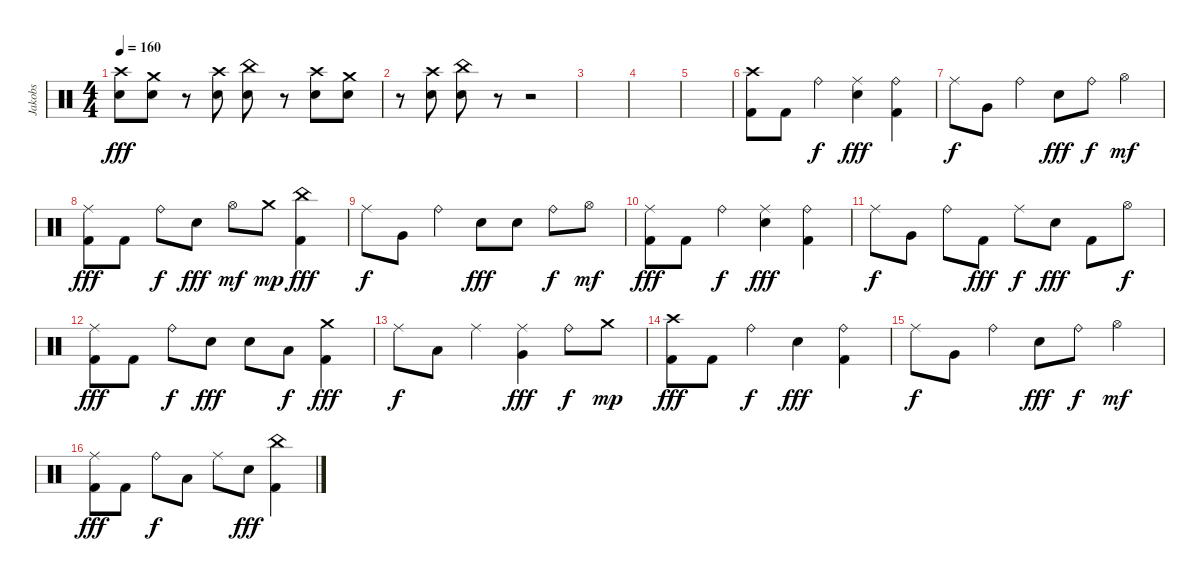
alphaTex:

\track ("Jakobs" "Jakobs") {instrument percussion}
\staff {score}
\articulation defaults
\ts (4 4)
\tempo 160
\clef neutral
\ks c
("Crash high (hit)" "Snare (hit) 2").8{dy fff} ("Crash medium (hit)" "Snare (hit) 2").8 r.8 ("Crash high (hit)" "Snare (hit) 2").8 ("China (hit)" "Snare (hit) 2").8 r.8 ("Crash high (hit)" "Snare (hit) 2").8 ("Crash medium (hit)" "Snare (hit) 2").8 |
r.8 ("Crash high (hit)" "Snare (hit) 2").8 ("China (hit)" "Snare (hit) 2").8 r.8 r.2 |
|
|
|
("Crash high (hit)" "Kick (hit) 2").8 "Kick (hit) 2".8 "Ride (bell)".4{dy f} ("Ride (middle)" "Snare (hit) 2").4{dy fff} ("Ride (bell)" "Kick (hit) 2").4 |
"Ride (middle)".8{dy f} "Very Low Tom (hit)".8 "Ride (bell)".4 "Snare (hit) 2".8{dy fff} "Ride (bell)".8{dy f} "Hi-Hat (open)".4{dy mf} |
("Ride (middle)" "Kick (hit) 2").8{dy fff} "Kick (hit) 2".8 "Ride (bell)".8{dy f} "Snare (hit) 2".8{dy fff} "Hi-Hat (open)".8{dy mf} "Crash medium (hit)".8{dy mp} ("China (hit)" "Kick (hit) 2").4{dy fff} |
"Ride (middle)".8{dy f} "Very Low Tom (hit)".8 "Ride (bell)".4 "Snare (hit) 2".8{dy fff} "Snare (hit) 2".8 "Ride (bell)".8{dy f} "Hi-Hat (open)".8{dy mf} |
("Ride (middle)" "Kick (hit) 2").8{dy fff} "Kick (hit) 2".8 "Ride (bell)".4{dy f} ("Ride (middle)" "Snare (hit) 2").4{dy fff} ("Ride (bell)" "Kick (hit) 2").4 |
"Ride (middle)".8{dy f} "Very Low Tom (hit)".8 "Ride (bell)".8 "Kick (hit) 2".8{dy fff} "Ride (middle)".8{dy f} "Snare (hit) 2".8{dy fff} "Kick (hit) 2".8 "Hi-Hat (open)".8{dy f} |
("Ride (middle)" "Kick (hit) 2").8{dy fff} "Kick (hit) 2".8 "Ride (bell)".8{dy f} "Snare (hit) 2".8{dy fff} "Snare (hit) 2".8 "Low Tom (hit)".8{dy f} ("Crash medium (hit)" "Kick (hit) 2").4{dy fff} |
"Ride (middle)".8{dy f} "Low Tom (hit)".8 "Ride (middle)".4 ("Ride (middle)" "Very Low Tom (hit)").4{dy fff} "Ride (bell)".8{dy f} "Crash medium (hit)".8{dy mp} |
("Crash high (hit)" "Kick (hit) 2").8{dy fff} "Kick (hit) 2".8 "Ride (bell)".4{dy f} "Snare (hit) 2".4{dy fff} ("Ride (bell)" "Kick (hit) 2").4 |
"Ride (middle)".8{dy f} "Very Low Tom (hit)".8 "Ride (bell)".4 "Snare (hit) 2".8{dy fff} "Ride (bell)".8{dy f} "Hi-Hat (open)".4{dy mf} |
("Ride (middle)" "Kick (hit) 2").8{dy fff} "Kick (hit) 2".8 "Ride (bell)".8{dy f} "Low Tom (hit)".8 "Ride (middle)".8 "Snare (hit) 2".8{dy fff} ("China (hit)" "Kick (hit) 2").4
